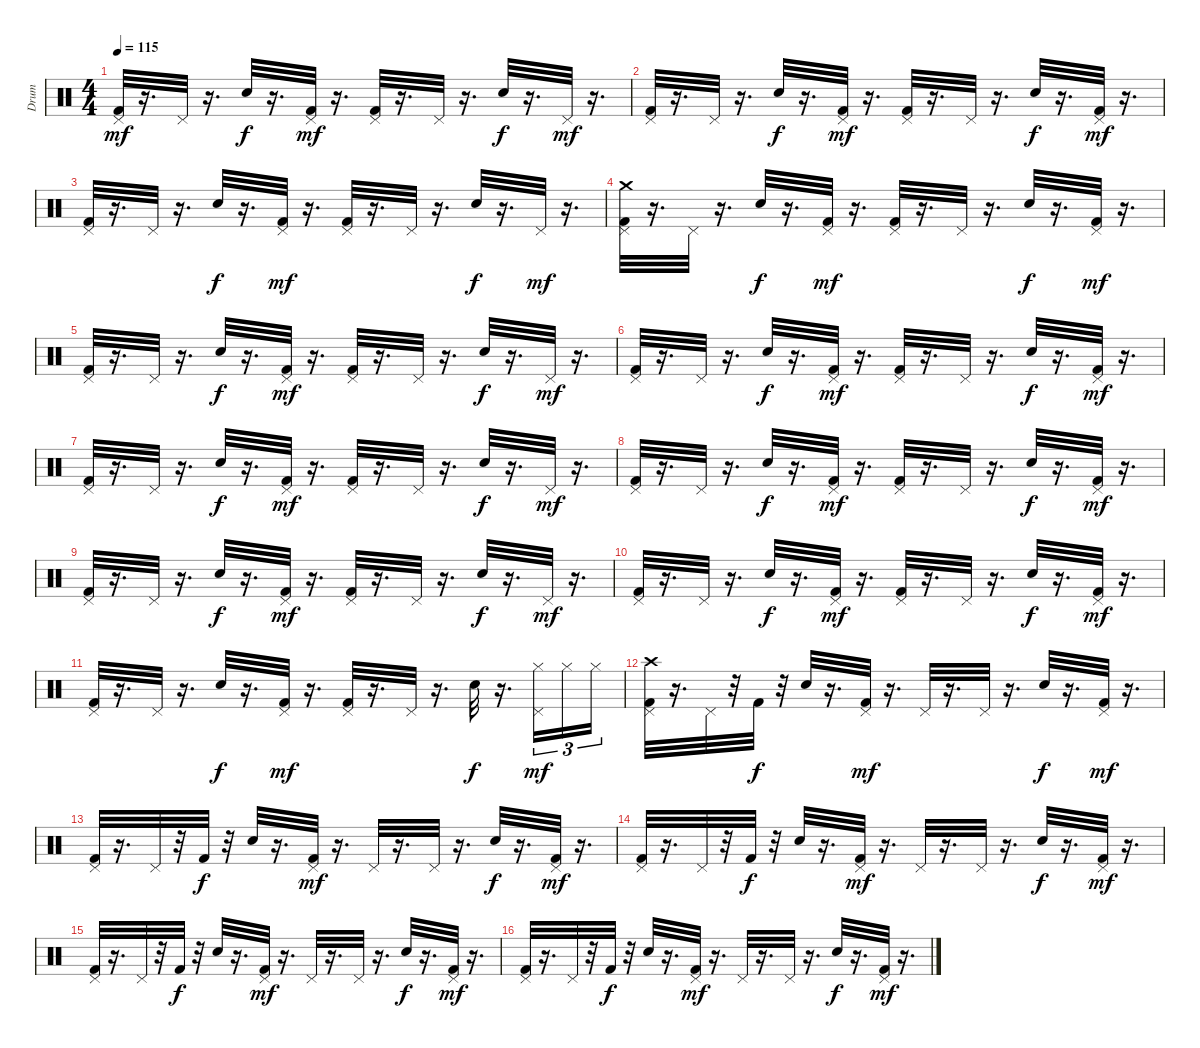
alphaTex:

\track ("Drum" "Drum") {instrument percussion}
\staff {score}
\articulation defaults
\ts (4 4)
\tempo 115
\clef neutral
\ks c
("Kick (hit) 2" "Pedal Hi-Hat (hit)").32{dy mf} r.16{d} "Pedal Hi-Hat (hit)".32 r.16{d} "Snare (hit) 2".32{dy f} r.16{d} ("Kick (hit) 2" "Pedal Hi-Hat (hit)").32{dy mf} r.16{d} ("Kick (hit) 2" "Pedal Hi-Hat (hit)").32 r.16{d} "Pedal Hi-Hat (hit)".32 r.16{d} "Snare (hit) 2".32{dy f} r.16{d} "Pedal Hi-Hat (hit)".32{dy mf} r.16{d} |
("Kick (hit) 2" "Pedal Hi-Hat (hit)").32 r.16{d} "Pedal Hi-Hat (hit)".32 r.16{d} "Snare (hit) 2".32{dy f} r.16{d} ("Kick (hit) 2" "Pedal Hi-Hat (hit)").32{dy mf} r.16{d} ("Kick (hit) 2" "Pedal Hi-Hat (hit)").32 r.16{d} "Pedal Hi-Hat (hit)".32 r.16{d} "Snare (hit) 2".32{dy f} r.16{d} ("Kick (hit) 2" "Pedal Hi-Hat (hit)").32{dy mf} r.16{d} |
("Kick (hit) 2" "Pedal Hi-Hat (hit)").32 r.16{d} "Pedal Hi-Hat (hit)".32 r.16{d} "Snare (hit) 2".32{dy f} r.16{d} ("Kick (hit) 2" "Pedal Hi-Hat (hit)").32{dy mf} r.16{d} ("Kick (hit) 2" "Pedal Hi-Hat (hit)").32 r.16{d} "Pedal Hi-Hat (hit)".32 r.16{d} "Snare (hit) 2".32{dy f} r.16{d} "Pedal Hi-Hat (hit)".32{dy mf} r.16{d} |
("Kick (hit) 2" "Crash medium (hit)" "Pedal Hi-Hat (hit)").32 r.16{d} "Pedal Hi-Hat (hit)".32 r.16{d} "Snare (hit) 2".32{dy f} r.16{d} ("Kick (hit) 2" "Pedal Hi-Hat (hit)").32{dy mf} r.16{d} ("Kick (hit) 2" "Pedal Hi-Hat (hit)").32 r.16{d} "Pedal Hi-Hat (hit)".32 r.16{d} "Snare (hit) 2".32{dy f} r.16{d} ("Kick (hit) 2" "Pedal Hi-Hat (hit)").32{dy mf} r.16{d} |
("Kick (hit) 2" "Pedal Hi-Hat (hit)").32 r.16{d} "Pedal Hi-Hat (hit)".32 r.16{d} "Snare (hit) 2".32{dy f} r.16{d} ("Kick (hit) 2" "Pedal Hi-Hat (hit)").32{dy mf} r.16{d} ("Kick (hit) 2" "Pedal Hi-Hat (hit)").32 r.16{d} "Pedal Hi-Hat (hit)".32 r.16{d} "Snare (hit) 2".32{dy f} r.16{d} "Pedal Hi-Hat (hit)".32{dy mf} r.16{d} |
("Kick (hit) 2" "Pedal Hi-Hat (hit)").32 r.16{d} "Pedal Hi-Hat (hit)".32 r.16{d} "Snare (hit) 2".32{dy f} r.16{d} ("Kick (hit) 2" "Pedal Hi-Hat (hit)").32{dy mf} r.16{d} ("Kick (hit) 2" "Pedal Hi-Hat (hit)").32 r.16{d} "Pedal Hi-Hat (hit)".32 r.16{d} "Snare (hit) 2".32{dy f} r.16{d} ("Kick (hit) 2" "Pedal Hi-Hat (hit)").32{dy mf} r.16{d} |
("Kick (hit) 2" "Pedal Hi-Hat (hit)").32 r.16{d} "Pedal Hi-Hat (hit)".32 r.16{d} "Snare (hit) 2".32{dy f} r.16{d} ("Kick (hit) 2" "Pedal Hi-Hat (hit)").32{dy mf} r.16{d} ("Kick (hit) 2" "Pedal Hi-Hat (hit)").32 r.16{d} "Pedal Hi-Hat (hit)".32 r.16{d} "Snare (hit) 2".32{dy f} r.16{d} "Pedal Hi-Hat (hit)".32{dy mf} r.16{d} |
("Kick (hit) 2" "Pedal Hi-Hat (hit)").32 r.16{d} "Pedal Hi-Hat (hit)".32 r.16{d} "Snare (hit) 2".32{dy f} r.16{d} ("Kick (hit) 2" "Pedal Hi-Hat (hit)").32{dy mf} r.16{d} ("Kick (hit) 2" "Pedal Hi-Hat (hit)").32 r.16{d} "Pedal Hi-Hat (hit)".32 r.16{d} "Snare (hit) 2".32{dy f} r.16{d} ("Kick (hit) 2" "Pedal Hi-Hat (hit)").32{dy mf} r.16{d} |
("Kick (hit) 2" "Pedal Hi-Hat (hit)").32 r.16{d} "Pedal Hi-Hat (hit)".32 r.16{d} "Snare (hit) 2".32{dy f} r.16{d} ("Kick (hit) 2" "Pedal Hi-Hat (hit)").32{dy mf} r.16{d} ("Kick (hit) 2" "Pedal Hi-Hat (hit)").32 r.16{d} "Pedal Hi-Hat (hit)".32 r.16{d} "Snare (hit) 2".32{dy f} r.16{d} "Pedal Hi-Hat (hit)".32{dy mf} r.16{d} |
("Kick (hit) 2" "Pedal Hi-Hat (hit)").32 r.16{d} "Pedal Hi-Hat (hit)".32 r.16{d} "Snare (hit) 2".32{dy f} r.16{d} ("Kick (hit) 2" "Pedal Hi-Hat (hit)").32{dy mf} r.16{d} ("Kick (hit) 2" "Pedal Hi-Hat (hit)").32 r.16{d} "Pedal Hi-Hat (hit)".32 r.16{d} "Snare (hit) 2".32{dy f} r.16{d} ("Kick (hit) 2" "Pedal Hi-Hat (hit)").32{dy mf} r.16{d} |
("Kick (hit) 2" "Pedal Hi-Hat (hit)").32 r.16{d} "Pedal Hi-Hat (hit)".32 r.16{d} "Snare (hit) 2".32{dy f} r.16{d} ("Kick (hit) 2" "Pedal Hi-Hat (hit)").32{dy mf} r.16{d} ("Kick (hit) 2" "Pedal Hi-Hat (hit)").32 r.16{d} "Pedal Hi-Hat (hit)".32 r.16{d} "Snare (hit) 2".32{dy f} r.16{d} ("Hi-Hat (closed)" "Pedal Hi-Hat (hit)").16{tu (3 2) dy mf} "Hi-Hat (closed)".16{tu (3 2)} "Hi-Hat (closed)".16{tu (3 2)} |
("Kick (hit) 2" "Crash high (hit)" "Pedal Hi-Hat (hit)").32 r.16{d} "Pedal Hi-Hat (hit)".32 r.32 "Kick (hit) 2".32{dy f} r.32 "Snare (hit) 2".32 r.16{d} ("Kick (hit) 2" "Pedal Hi-Hat (hit)").32{dy mf} r.16{d} "Pedal Hi-Hat (hit)".32 r.16{d} "Pedal Hi-Hat (hit)".32 r.16{d} "Snare (hit) 2".32{dy f} r.16{d} ("Kick (hit) 2" "Pedal Hi-Hat (hit)").32{dy mf} r.16{d} |
("Kick (hit) 2" "Pedal Hi-Hat (hit)").32 r.16{d} "Pedal Hi-Hat (hit)".32 r.32 "Kick (hit) 2".32{dy f} r.32 "Snare (hit) 2".32 r.16{d} ("Kick (hit) 2" "Pedal Hi-Hat (hit)").32{dy mf} r.16{d} "Pedal Hi-Hat (hit)".32 r.16{d} "Pedal Hi-Hat (hit)".32 r.16{d} "Snare (hit) 2".32{dy f} r.16{d} ("Kick (hit) 2" "Pedal Hi-Hat (hit)").32{dy mf} r.16{d} |
("Kick (hit) 2" "Pedal Hi-Hat (hit)").32 r.16{d} "Pedal Hi-Hat (hit)".32 r.32 "Kick (hit) 2".32{dy f} r.32 "Snare (hit) 2".32 r.16{d} ("Kick (hit) 2" "Pedal Hi-Hat (hit)").32{dy mf} r.16{d} "Pedal Hi-Hat (hit)".32 r.16{d} "Pedal Hi-Hat (hit)".32 r.16{d} "Snare (hit) 2".32{dy f} r.16{d} ("Kick (hit) 2" "Pedal Hi-Hat (hit)").32{dy mf} r.16{d} |
("Kick (hit) 2" "Pedal Hi-Hat (hit)").32 r.16{d} "Pedal Hi-Hat (hit)".32 r.32 "Kick (hit) 2".32{dy f} r.32 "Snare (hit) 2".32 r.16{d} ("Kick (hit) 2" "Pedal Hi-Hat (hit)").32{dy mf} r.16{d} "Pedal Hi-Hat (hit)".32 r.16{d} "Pedal Hi-Hat (hit)".32 r.16{d} "Snare (hit) 2".32{dy f} r.16{d} ("Kick (hit) 2" "Pedal Hi-Hat (hit)").32{dy mf} r.16{d} |
("Kick (hit) 2" "Pedal Hi-Hat (hit)").32 r.16{d} "Pedal Hi-Hat (hit)".32 r.32 "Kick (hit) 2".32{dy f} r.32 "Snare (hit) 2".32 r.16{d} ("Kick (hit) 2" "Pedal Hi-Hat (hit)").32{dy mf} r.16{d} "Pedal Hi-Hat (hit)".32 r.16{d} "Pedal Hi-Hat (hit)".32 r.16{d} "Snare (hit) 2".32{dy f} r.16{d} ("Kick (hit) 2" "Pedal Hi-Hat (hit)").32{dy mf} r.16{d}
